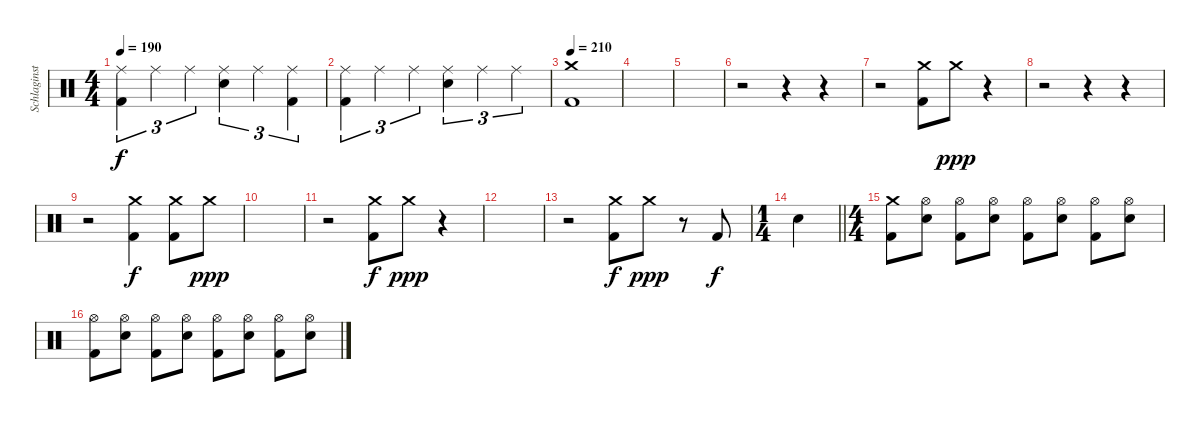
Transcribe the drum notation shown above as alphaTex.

\track ("Schlaginstrumente - Auswahl" "Schlaginst") {instrument percussion}
\staff {score}
\articulation defaults
\ts (4 4)
\tempo 190
\clef neutral
\ks c
("Ride (middle)" "Kick (hit) 2").4{tu (3 2) dy f} "Ride (middle)".4{tu (3 2)} "Ride (middle)".4{tu (3 2)} ("Ride (middle)" "Electric Snare (hit)").4{tu (3 2)} "Ride (middle)".4{tu (3 2)} ("Ride (middle)" "Kick (hit) 2").4{tu (3 2)} |
("Ride (middle)" "Kick (hit) 2").4{tu (3 2)} "Ride (middle)".4{tu (3 2)} "Ride (middle)".4{tu (3 2)} ("Ride (middle)" "Electric Snare (hit)").4{tu (3 2)} "Ride (middle)".4{tu (3 2)} "Ride (middle)".4{tu (3 2)} |
\tempo 210
("Crash medium (hit)" "Kick (hit) 2").1 |
|
|
r.2 r.4 r.4 |
r.2 ("Crash medium (hit)" "Kick (hit) 2").8 "Crash medium (hit)".8{dy ppp} r.4 |
r.2 r.4 r.4 |
r.2 ("Crash medium (hit)" "Kick (hit) 2").4{dy f} ("Crash medium (hit)" "Kick (hit) 2").8 "Crash medium (hit)".8{dy ppp} |
|
r.2 ("Crash medium (hit)" "Kick (hit) 2").8{dy f} "Crash medium (hit)".8{dy ppp} r.4 |
|
r.2 ("Crash medium (hit)" "Kick (hit) 2").8{dy f} "Crash medium (hit)".8{dy ppp} r.8 "Kick (hit) 2".8{dy f} |
\ts (1 4)
\barLineRight lightlight "Electric Snare (hit)".4
|
\ts (4 4)
("Crash medium (hit)" "Kick (hit) 2").8 ("Hi-Hat (open)" "Electric Snare (hit)").8 ("Hi-Hat (open)" "Kick (hit) 2").8 ("Hi-Hat (open)" "Electric Snare (hit)").8 ("Hi-Hat (open)" "Kick (hit) 2").8 ("Hi-Hat (open)" "Electric Snare (hit)").8 ("Hi-Hat (open)" "Kick (hit) 2").8 ("Hi-Hat (open)" "Electric Snare (hit)").8 |
("Hi-Hat (open)" "Kick (hit) 2").8 ("Hi-Hat (open)" "Electric Snare (hit)").8 ("Hi-Hat (open)" "Kick (hit) 2").8 ("Hi-Hat (open)" "Electric Snare (hit)").8 ("Hi-Hat (open)" "Kick (hit) 2").8 ("Hi-Hat (open)" "Electric Snare (hit)").8 ("Hi-Hat (open)" "Kick (hit) 2").8 ("Hi-Hat (open)" "Electric Snare (hit)").8
